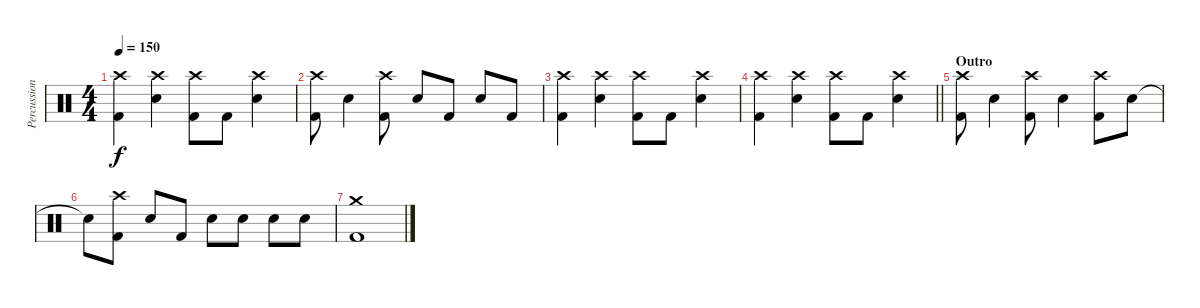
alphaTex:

\track ("Percussion" "Percussion") {instrument percussion}
\staff {score}
\articulation defaults
\ts (4 4)
\tempo 150
\clef neutral
\ks c
("Crash high (hit)" "Kick (hit) 2").4{dy f} ("Crash high (hit)" "Electric Snare (hit)").4 ("Crash high (hit)" "Kick (hit) 2").8 "Kick (hit) 2".8 ("Crash high (hit)" "Electric Snare (hit)").4 |
("Crash high (hit)" "Kick (hit) 2").8 "Electric Snare (hit)".4 ("Crash high (hit)" "Kick (hit) 2").8 "Electric Snare (hit)".8 "Kick (hit) 2".8 "Electric Snare (hit)".8 "Kick (hit) 2".8 |
("Crash high (hit)" "Kick (hit) 2").4 ("Crash high (hit)" "Electric Snare (hit)").4 ("Crash high (hit)" "Kick (hit) 2").8 "Kick (hit) 2".8 ("Crash high (hit)" "Electric Snare (hit)").4 |
\barLineRight lightlight
("Crash high (hit)" "Kick (hit) 2").4 ("Crash high (hit)" "Electric Snare (hit)").4 ("Crash high (hit)" "Kick (hit) 2").8 "Kick (hit) 2".8 ("Crash high (hit)" "Electric Snare (hit)").4 |
\section ("" "Outro")
("Crash high (hit)" "Kick (hit) 2").8 "Electric Snare (hit)".4 ("Crash high (hit)" "Kick (hit) 2").8 "Electric Snare (hit)".4 ("Crash high (hit)" "Kick (hit) 2").8 "Electric Snare (hit)".8 |
"Snare (hit)"{t}.8 ("Crash high (hit)" "Kick (hit) 2").8 "Electric Snare (hit)".8 "Kick (hit) 2".8 "Electric Snare (hit)".8 "Electric Snare (hit)".8 "Electric Snare (hit)".8 "Electric Snare (hit)".8 |
("Crash medium (hit)" "Kick (hit) 2").1
